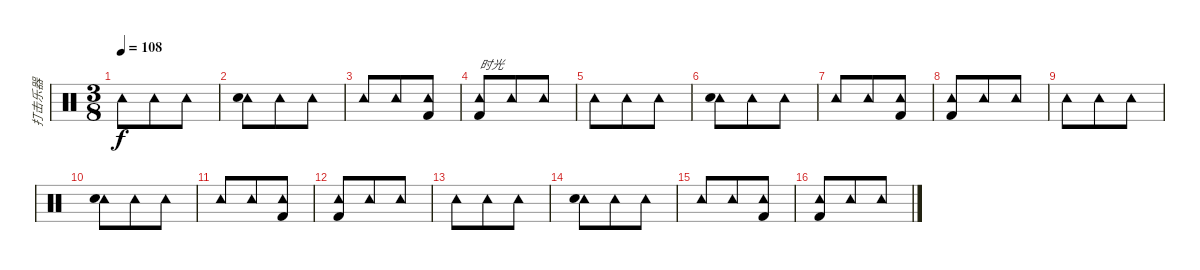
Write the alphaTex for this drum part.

\track ("打击乐器" "打击乐器") {instrument percussion}
\staff {score}
\articulation defaults
\ts (3 8)
\tempo 108
\clef neutral
\ks c "Tambourine (hit)".8{dy f} "Tambourine (hit)".8 "Tambourine (hit)".8
|
("Tambourine (hit)" "Snare (hit) 2").8 "Tambourine (hit)".8 "Tambourine (hit)".8 |
"Tambourine (hit)".8 "Tambourine (hit)".8 ("Tambourine (hit)" "Kick (hit) 2").8 |
("Tambourine (hit)" "Kick (hit) 2").8{txt "时光"} "Tambourine (hit)".8 "Tambourine (hit)".8 |
"Tambourine (hit)".8 "Tambourine (hit)".8 "Tambourine (hit)".8 |
("Tambourine (hit)" "Snare (hit) 2").8 "Tambourine (hit)".8 "Tambourine (hit)".8 |
"Tambourine (hit)".8 "Tambourine (hit)".8 ("Tambourine (hit)" "Kick (hit) 2").8 |
("Tambourine (hit)" "Kick (hit) 2").8 "Tambourine (hit)".8 "Tambourine (hit)".8 |
"Tambourine (hit)".8 "Tambourine (hit)".8 "Tambourine (hit)".8 |
("Tambourine (hit)" "Snare (hit) 2").8 "Tambourine (hit)".8 "Tambourine (hit)".8 |
"Tambourine (hit)".8 "Tambourine (hit)".8 ("Tambourine (hit)" "Kick (hit) 2").8 |
("Tambourine (hit)" "Kick (hit) 2").8 "Tambourine (hit)".8 "Tambourine (hit)".8 |
"Tambourine (hit)".8 "Tambourine (hit)".8 "Tambourine (hit)".8 |
("Tambourine (hit)" "Snare (hit) 2").8 "Tambourine (hit)".8 "Tambourine (hit)".8 |
"Tambourine (hit)".8 "Tambourine (hit)".8 ("Tambourine (hit)" "Kick (hit) 2").8 |
("Tambourine (hit)" "Kick (hit) 2").8 "Tambourine (hit)".8 "Tambourine (hit)".8
